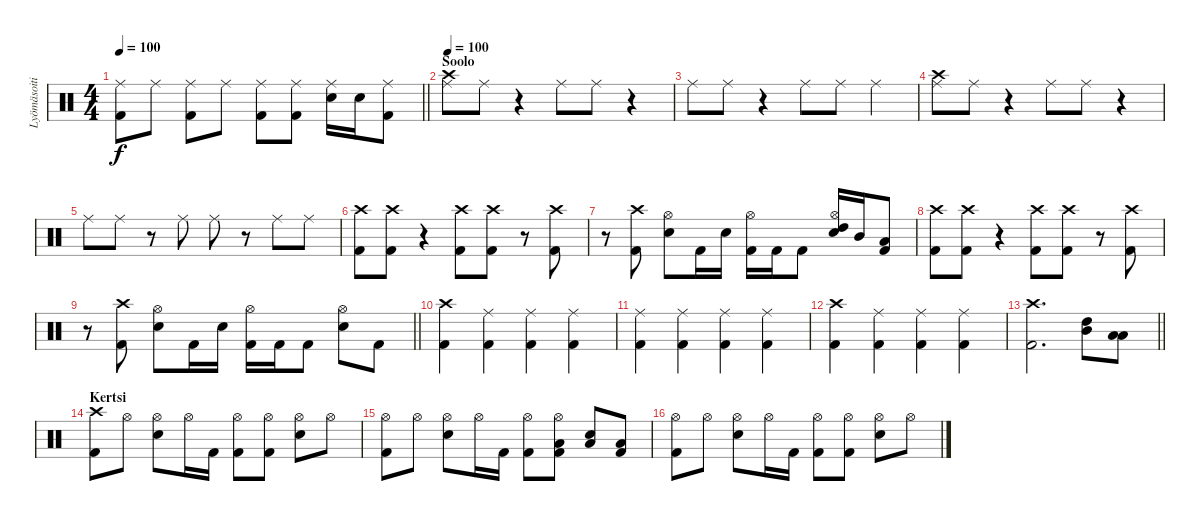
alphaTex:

\track ("Lyömäsoitin" "Lyömäsoiti") {instrument percussion}
\staff {score}
\articulation defaults
\ts (4 4)
\tempo 100
\clef neutral
\barLineRight lightlight
\ks c
("Ride (middle)" "Kick (hit) 2").8{dy f} "Ride (middle)".8 ("Ride (middle)" "Kick (hit) 2").8 "Ride (middle)".8 ("Ride (middle)" "Kick (hit) 2").8 ("Ride (middle)" "Kick (hit) 2").8 ("Ride (middle)" "Snare (hit) 2").16 "Snare (hit) 2".16 ("Ride (middle)" "Kick (hit) 2").8 |
\section ("" "Soolo")
\tempo 100
("Crash high (hit)" "Ride (middle)").8 "Ride (middle)".8 r.4 "Ride (middle)".8 "Ride (middle)".8 r.4 |
"Ride (middle)".8 "Ride (middle)".8 r.4 "Ride (middle)".8 "Ride (middle)".8 "Ride (middle)".4 |
("Crash high (hit)" "Ride (middle)").8 "Ride (middle)".8 r.4 "Ride (middle)".8 "Ride (middle)".8 r.4 |
"Ride (middle)".8 "Ride (middle)".8 r.8 "Ride (middle)".8 "Ride (middle)".8 r.8 "Ride (middle)".8 "Ride (middle)".8 |
("Crash high (hit)" "Kick (hit) 2").8 ("Crash high (hit)" "Kick (hit) 2").8 r.4 ("Crash high (hit)" "Kick (hit) 2").8 ("Crash high (hit)" "Kick (hit) 2").8 r.8 ("Crash high (hit)" "Kick (hit) 2").8 |
r.8 ("Crash high (hit)" "Kick (hit) 2").8 ("Hi-Hat (open)" "Snare (hit) 2").8 "Kick (hit) 2".16 "Snare (hit) 2".16 ("Hi-Hat (open)" "Kick (hit) 2").16 "Kick (hit) 2".16 "Kick (hit) 2".8 ("Hi-Hat (open)" "Snare (hit) 2" "High Tom (hit)").16 "Mid Tom (hit)".16 ("Low Tom (hit)" "Kick (hit) 2").8 |
("Crash high (hit)" "Kick (hit) 2").8 ("Crash high (hit)" "Kick (hit) 2").8 r.4 ("Crash high (hit)" "Kick (hit) 2").8 ("Crash high (hit)" "Kick (hit) 2").8 r.8 ("Crash high (hit)" "Kick (hit) 2").8 |
\barLineRight lightlight
r.8 ("Crash high (hit)" "Kick (hit) 2").8 ("Hi-Hat (open)" "Snare (hit) 2").8 "Kick (hit) 2".16 "Snare (hit) 2".16 ("Hi-Hat (open)" "Kick (hit) 2").16 "Kick (hit) 2".16 "Kick (hit) 2".8 ("Hi-Hat (open)" "Snare (hit) 2").8 "Kick (hit) 2".8 |
("Crash high (hit)" "Kick (hit) 2").4 ("Ride (middle)" "Kick (hit) 2").4 ("Ride (middle)" "Kick (hit) 2").4 ("Ride (middle)" "Kick (hit) 2").4 |
("Ride (middle)" "Kick (hit) 2").4 ("Ride (middle)" "Kick (hit) 2").4 ("Ride (middle)" "Kick (hit) 2").4 ("Ride (middle)" "Kick (hit) 2").4 |
("Crash high (hit)" "Kick (hit) 2").4 ("Ride (middle)" "Kick (hit) 2").4 ("Ride (middle)" "Kick (hit) 2").4 ("Ride (middle)" "Kick (hit) 2").4 |
\barLineRight lightlight
("Crash high (hit)" "Kick (hit) 2").2{d} ("High Tom (hit)" "Mid Tom (hit)").8 ("Low Tom (hit)" "Low Tom (hit)").8 |
\section ("" "Kertsi")
("Crash high (hit)" "Kick (hit) 2").8 "Hi-Hat (open)".8 ("Hi-Hat (open)" "Snare (hit) 2").8 "Hi-Hat (open)".16 "Kick (hit) 2".16 ("Hi-Hat (open)" "Kick (hit) 2").8 ("Hi-Hat (open)" "Kick (hit) 2").8 ("Hi-Hat (open)" "Snare (hit) 2").8 "Hi-Hat (open)".8 |
("Hi-Hat (open)" "Kick (hit) 2").8 "Hi-Hat (open)".8 ("Hi-Hat (open)" "Snare (hit) 2").8 "Hi-Hat (open)".16 "Kick (hit) 2".16 ("Hi-Hat (open)" "Kick (hit) 2").8 ("Hi-Hat (open)" "Low Floor Tom (hit)" "Kick (hit) 2").8 ("Snare (hit) 2" "Low Floor Tom (hit)").8 ("Low Floor Tom (hit)" "Kick (hit) 2").8 |
("Hi-Hat (open)" "Kick (hit) 2").8 "Hi-Hat (open)".8 ("Hi-Hat (open)" "Snare (hit) 2").8 "Hi-Hat (open)".16 "Kick (hit) 2".16 ("Hi-Hat (open)" "Kick (hit) 2").8 ("Hi-Hat (open)" "Kick (hit) 2").8 ("Hi-Hat (open)" "Snare (hit) 2").8 "Hi-Hat (open)".8
